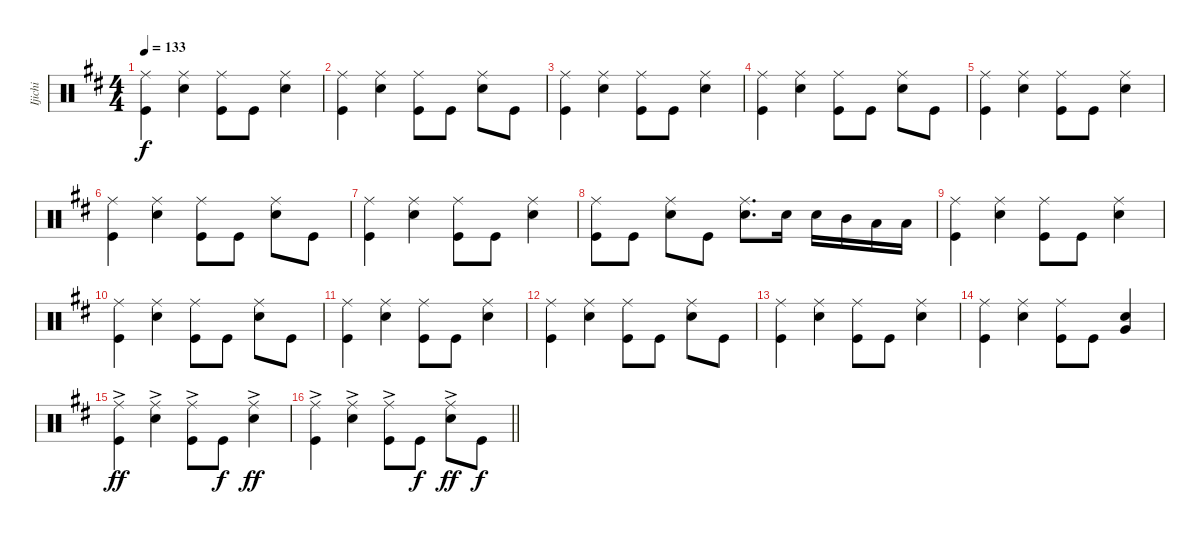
\track ("Ijichi" "Ijichi") {instrument percussion}
\staff {score}
\articulation defaults
\ts (4 4)
\tempo 133
\clef neutral
\ks d
("Ride (middle)" "Kick (hit)").4{dy f} ("Ride (middle)" "Snare (hit) 2").4 ("Ride (middle)" "Kick (hit)").8 "Kick (hit)".8 ("Ride (middle)" "Snare (hit) 2").4 |
("Ride (middle)" "Kick (hit)").4 ("Ride (middle)" "Snare (hit) 2").4 ("Ride (middle)" "Kick (hit)").8 "Kick (hit)".8 ("Ride (middle)" "Snare (hit) 2").8 "Kick (hit)".8 |
("Ride (middle)" "Kick (hit)").4 ("Ride (middle)" "Snare (hit) 2").4 ("Ride (middle)" "Kick (hit)").8 "Kick (hit)".8 ("Ride (middle)" "Snare (hit) 2").4 |
("Ride (middle)" "Kick (hit)").4 ("Ride (middle)" "Snare (hit) 2").4 ("Ride (middle)" "Kick (hit)").8 "Kick (hit)".8 ("Ride (middle)" "Snare (hit) 2").8 "Kick (hit)".8 |
("Ride (middle)" "Kick (hit)").4 ("Ride (middle)" "Snare (hit) 2").4 ("Ride (middle)" "Kick (hit)").8 "Kick (hit)".8 ("Ride (middle)" "Snare (hit) 2").4 |
("Ride (middle)" "Kick (hit)").4 ("Ride (middle)" "Snare (hit) 2").4 ("Ride (middle)" "Kick (hit)").8 "Kick (hit)".8 ("Ride (middle)" "Snare (hit) 2").8 "Kick (hit)".8 |
("Ride (middle)" "Kick (hit)").4 ("Ride (middle)" "Snare (hit) 2").4 ("Ride (middle)" "Kick (hit)").8 "Kick (hit)".8 ("Ride (middle)" "Snare (hit) 2").4 |
("Ride (middle)" "Kick (hit)").8 "Kick (hit)".8 ("Ride (middle)" "Snare (hit) 2").8 "Kick (hit)".8 ("Ride (middle)" "Snare (hit) 2").8{d} "Snare (hit) 2".16 "Snare (hit) 2".16 "Mid Tom (hit)".16 "Low Tom (hit)".16 "Low Tom (hit)".16 |
("Ride (middle)" "Kick (hit)").4 ("Ride (middle)" "Snare (hit) 2").4 ("Ride (middle)" "Kick (hit)").8 "Kick (hit)".8 ("Ride (middle)" "Snare (hit) 2").4 |
("Ride (middle)" "Kick (hit)").4 ("Ride (middle)" "Snare (hit) 2").4 ("Ride (middle)" "Kick (hit)").8 "Kick (hit)".8 ("Ride (middle)" "Snare (hit) 2").8 "Kick (hit)".8 |
("Ride (middle)" "Kick (hit)").4 ("Ride (middle)" "Snare (hit) 2").4 ("Ride (middle)" "Kick (hit)").8 "Kick (hit)".8 ("Ride (middle)" "Snare (hit) 2").4 |
("Ride (middle)" "Kick (hit)").4 ("Ride (middle)" "Snare (hit) 2").4 ("Ride (middle)" "Kick (hit)").8 "Kick (hit)".8 ("Ride (middle)" "Snare (hit) 2").8 "Kick (hit)".8 |
("Ride (middle)" "Kick (hit)").4 ("Ride (middle)" "Snare (hit) 2").4 ("Ride (middle)" "Kick (hit)").8 "Kick (hit)".8 ("Ride (middle)" "Snare (hit) 2").4 |
("Ride (middle)" "Kick (hit)").4 ("Ride (middle)" "Snare (hit) 2").4 ("Ride (middle)" "Kick (hit)").8 "Kick (hit)".8 ("Very Low Tom (hit)" "Snare (hit) 2").4 |
("Ride (middle)"{ac} "Kick (hit)").4{dy ff} ("Ride (middle)"{ac} "Snare (hit) 2").4 ("Ride (middle)"{ac} "Kick (hit)").8 "Kick (hit)".8{dy f} ("Ride (middle)"{ac} "Snare (hit) 2").4{dy ff} |
\barLineRight lightlight
("Ride (middle)"{ac} "Kick (hit)").4 ("Ride (middle)"{ac} "Snare (hit) 2").4 ("Ride (middle)"{ac} "Kick (hit)").8 "Kick (hit)".8{dy f} ("Ride (middle)"{ac} "Snare (hit) 2").8{dy ff} "Kick (hit)".8{dy f}
